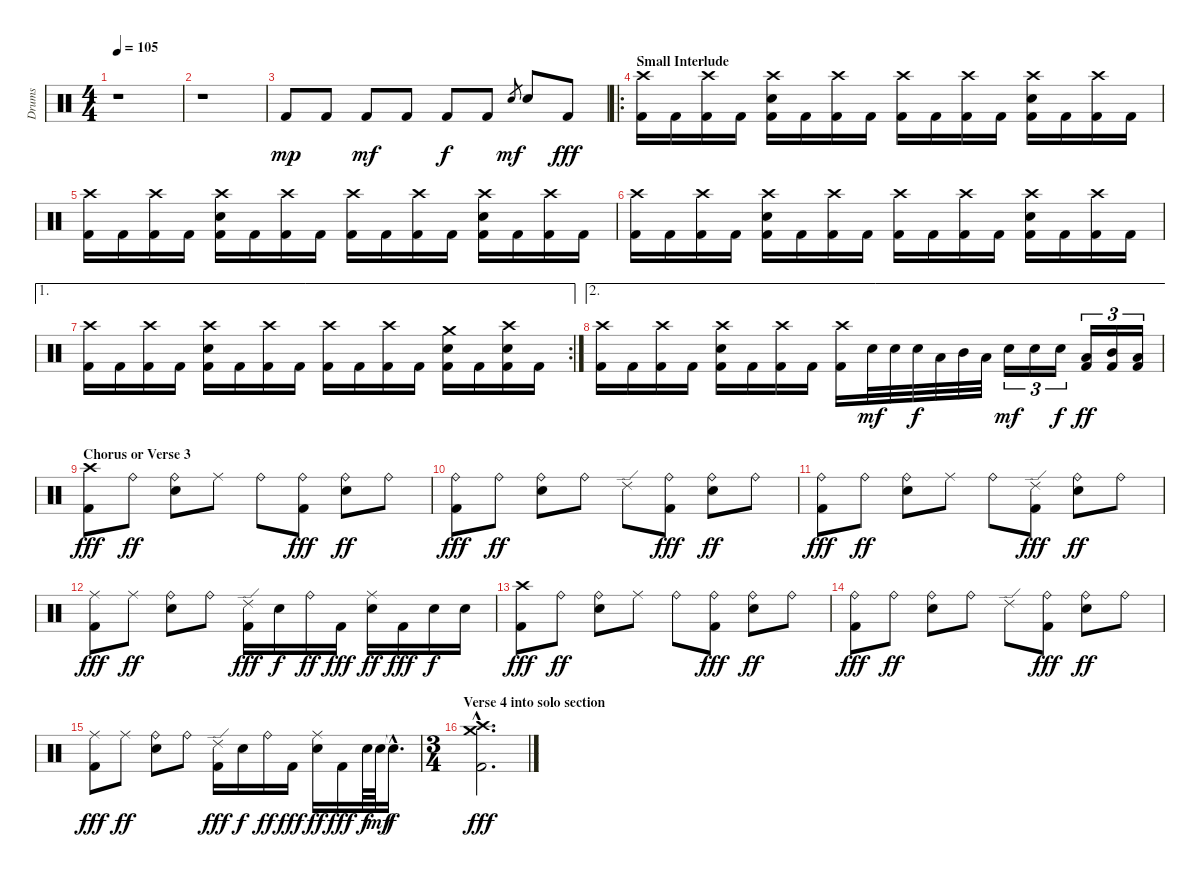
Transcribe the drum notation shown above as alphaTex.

\track ("Drums" "Drums") {instrument percussion}
\staff {score}
\articulation defaults
\ts (4 4)
\tempo 105
\clef neutral
\ks c
r.1{dy fff} |
r.1 |
"Kick (hit) 2".8{dy mp} "Kick (hit) 2".8 "Kick (hit) 2".8{dy mf} "Kick (hit) 2".8 "Kick (hit) 2".8{dy f} "Kick (hit) 2".8 "Electric Snare (hit)".8{gr dy mf} "Electric Snare (hit)".8 "Kick (hit) 2".8{dy fff} |
\ro
\section ("" "Small Interlude")
("Crash high (hit)" "Kick (hit) 2").16 "Kick (hit) 2".16 ("Crash high (hit)" "Kick (hit) 2").16 "Kick (hit) 2".16 ("Crash high (hit)" "Electric Snare (hit)" "Kick (hit) 2").16 "Kick (hit) 2".16 ("Crash high (hit)" "Kick (hit) 2").16 "Kick (hit) 2".16 ("Crash high (hit)" "Kick (hit) 2").16 "Kick (hit) 2".16 ("Crash high (hit)" "Kick (hit) 2").16 "Kick (hit) 2".16 ("Crash high (hit)" "Electric Snare (hit)" "Kick (hit) 2").16 "Kick (hit) 2".16 ("Crash high (hit)" "Kick (hit) 2").16 "Kick (hit) 2".16 |
("Crash high (hit)" "Kick (hit) 2").16 "Kick (hit) 2".16 ("Crash high (hit)" "Kick (hit) 2").16 "Kick (hit) 2".16 ("Crash high (hit)" "Electric Snare (hit)" "Kick (hit) 2").16 "Kick (hit) 2".16 ("Crash high (hit)" "Kick (hit) 2").16 "Kick (hit) 2".16 ("Crash high (hit)" "Kick (hit) 2").16 "Kick (hit) 2".16 ("Crash high (hit)" "Kick (hit) 2").16 "Kick (hit) 2".16 ("Crash high (hit)" "Electric Snare (hit)" "Kick (hit) 2").16 "Kick (hit) 2".16 ("Crash high (hit)" "Kick (hit) 2").16 "Kick (hit) 2".16 |
("Crash high (hit)" "Kick (hit) 2").16 "Kick (hit) 2".16 ("Crash high (hit)" "Kick (hit) 2").16 "Kick (hit) 2".16 ("Crash high (hit)" "Electric Snare (hit)" "Kick (hit) 2").16 "Kick (hit) 2".16 ("Crash high (hit)" "Kick (hit) 2").16 "Kick (hit) 2".16 ("Crash high (hit)" "Kick (hit) 2").16 "Kick (hit) 2".16 ("Crash high (hit)" "Kick (hit) 2").16 "Kick (hit) 2".16 ("Crash high (hit)" "Electric Snare (hit)" "Kick (hit) 2").16 "Kick (hit) 2".16 ("Crash high (hit)" "Kick (hit) 2").16 "Kick (hit) 2".16 |
\ae 1
\rc 2
("Crash high (hit)" "Kick (hit) 2").16 "Kick (hit) 2".16 ("Crash high (hit)" "Kick (hit) 2").16 "Kick (hit) 2".16 ("Crash high (hit)" "Electric Snare (hit)" "Kick (hit) 2").16 "Kick (hit) 2".16 ("Crash high (hit)" "Kick (hit) 2").16 "Kick (hit) 2".16 ("Crash high (hit)" "Kick (hit) 2").16 "Kick (hit) 2".16 ("Crash high (hit)" "Kick (hit) 2").16 "Kick (hit) 2".16 ("Crash medium (hit)" "Electric Snare (hit)" "Kick (hit) 2").16 "Kick (hit) 2".16 ("Crash high (hit)" "Electric Snare (hit)" "Kick (hit) 2").16 "Kick (hit) 2".16 |
\ae 2
("Crash high (hit)" "Kick (hit) 2").16 "Kick (hit) 2".16 ("Crash high (hit)" "Kick (hit) 2").16 "Kick (hit) 2".16 ("Crash high (hit)" "Electric Snare (hit)" "Kick (hit) 2").16 "Kick (hit) 2".16 ("Crash high (hit)" "Kick (hit) 2").16 "Kick (hit) 2".16 ("Crash high (hit)" "Kick (hit) 2").16 "Electric Snare (hit)".32{dy mf} "Electric Snare (hit)".32 "Electric Snare (hit)".32{dy f} "Low Tom (hit)".32 "Mid Tom (hit)".32 "Low Tom (hit)".32 "Electric Snare (hit)".16{tu (3 2) dy mf} "Electric Snare (hit)".16{tu (3 2)} "Electric Snare (hit)".16{tu (3 2) dy f} ("Low Tom (hit)" "Kick (hit) 2").16{tu (3 2) dy ff} ("Mid Tom (hit)" "Kick (hit) 2").16{tu (3 2)} ("Low Tom (hit)" "Kick (hit) 2").16{tu (3 2)} |
\section ("" "Chorus or Verse 3")
("Crash high (hit)" "Kick (hit) 2").8{dy fff} "Ride (bell)".8{dy ff} ("Ride (bell)" "Electric Snare (hit)").8 "Ride (middle)".8 "Ride (bell)".8 ("Ride (bell)" "Kick (hit) 2").8{dy fff} ("Ride (bell)" "Electric Snare (hit)").8{dy ff} "Ride (bell)".8 |
("Ride (bell)" "Kick (hit) 2").8{dy fff} "Ride (bell)".8{dy ff} ("Ride (bell)" "Electric Snare (hit)").8 "Ride (bell)".8 "Ride (edge) 2".8 ("Ride (bell)" "Kick (hit) 2").8{dy fff} ("Ride (bell)" "Electric Snare (hit)").8{dy ff} "Ride (bell)".8 |
("Ride (bell)" "Kick (hit) 2").8{dy fff} "Ride (bell)".8{dy ff} ("Ride (bell)" "Electric Snare (hit)").8 "Ride (middle)".8 "Ride (bell)".8 ("Ride (edge) 2" "Kick (hit) 2").8{dy fff} ("Ride (bell)" "Electric Snare (hit)").8{dy ff} "Ride (bell)".8 |
("Ride (middle)" "Kick (hit) 2").8{dy fff} "Ride (middle)".8{dy ff} ("Ride (bell)" "Electric Snare (hit)").8 "Ride (bell)".8 ("Ride (edge) 2" "Kick (hit) 2").16{dy fff} "Electric Snare (hit)".16{dy f} "Ride (bell)".16{dy ff} "Kick (hit) 2".16{dy fff} ("Ride (middle)" "Electric Snare (hit)").16{dy ff} "Kick (hit) 2".16{dy fff} "Electric Snare (hit)".16{dy f} "Electric Snare (hit)".16 |
("Crash high (hit)" "Kick (hit) 2").8{dy fff} "Ride (bell)".8{dy ff} ("Ride (bell)" "Electric Snare (hit)").8 "Ride (middle)".8 "Ride (bell)".8 ("Ride (bell)" "Kick (hit) 2").8{dy fff} ("Ride (bell)" "Electric Snare (hit)").8{dy ff} "Ride (bell)".8 |
("Ride (bell)" "Kick (hit) 2").8{dy fff} "Ride (bell)".8{dy ff} ("Ride (bell)" "Electric Snare (hit)").8 "Ride (bell)".8 "Ride (edge) 2".8 ("Ride (bell)" "Kick (hit) 2").8{dy fff} ("Ride (bell)" "Electric Snare (hit)").8{dy ff} "Ride (bell)".8 |
("Ride (middle)" "Kick (hit) 2").8{dy fff} "Ride (middle)".8{dy ff} ("Ride (bell)" "Electric Snare (hit)").8 "Ride (bell)".8 ("Ride (edge) 2" "Kick (hit) 2").16{dy fff} "Electric Snare (hit)".16{dy f} "Ride (bell)".16{dy ff} "Kick (hit) 2".16{dy fff} ("Ride (middle)" "Electric Snare (hit)").16{dy ff} "Kick (hit) 2".16{dy fff} "Electric Snare (hit)".64{dy f} "Electric Snare (hit)".64{dy mf} "Snare (hit)"{hac t}.16{d dy f} |
\ts (3 4)
\section ("" "Verse 4 into solo section")
("Crash high (hit)"{hac} "Crash medium (hit)"{hac} "Kick (hit) 2"{hac}).2{d dy fff}
